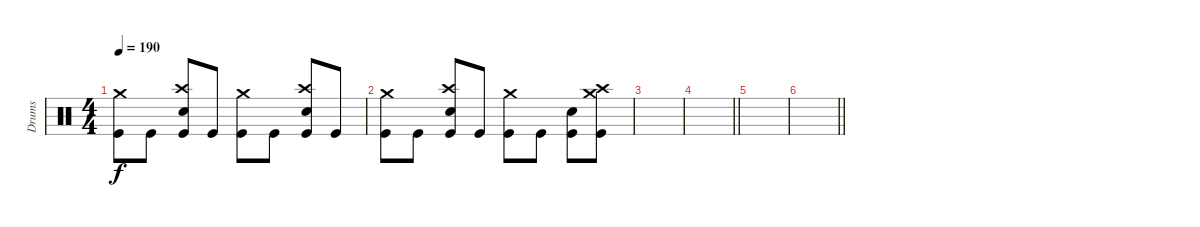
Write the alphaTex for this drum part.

\track ("Drums" "Drums") {instrument percussion}
\staff {score}
\articulation defaults
\ts (4 4)
\tempo 190
\clef neutral
\ks c
("Crash medium (hit)" "Kick (hit)").8{dy f} "Kick (hit)".8 ("Crash high (hit)" "Snare (hit) 2" "Kick (hit)").8 "Kick (hit)".8 ("Crash medium (hit)" "Kick (hit)").8 "Kick (hit)".8 ("Crash high (hit)" "Snare (hit) 2" "Kick (hit)").8 "Kick (hit)".8 |
("Crash medium (hit)" "Kick (hit)").8 "Kick (hit)".8 ("Crash high (hit)" "Snare (hit) 2" "Kick (hit)").8 "Kick (hit)".8 ("Crash medium (hit)" "Kick (hit)").8 "Kick (hit)".8 ("Snare (hit) 2" "Kick (hit)").8 ("Crash medium (hit)" "Crash high (hit)" "Kick (hit)").8 |
|
\barLineRight lightlight
|
|
\barLineRight lightlight
